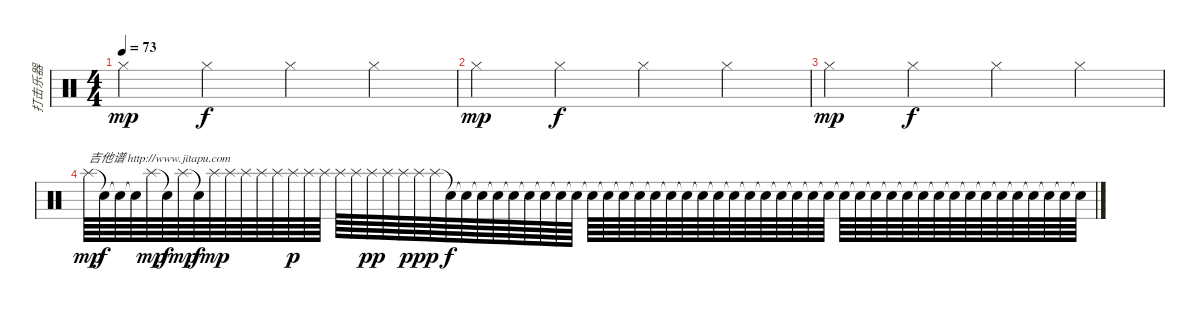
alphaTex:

\track ("打击乐器" "打击乐器") {instrument percussion}
\staff {score}
\articulation defaults
\ts (4 4)
\tempo 73
\clef neutral
\ks c "Hi-Hat (closed)".4{dy mp} "Hi-Hat (closed)".4{dy f} "Hi-Hat (closed)".4 "Hi-Hat (closed)".4
|
"Hi-Hat (closed)".4{dy mp} "Hi-Hat (closed)".4{dy f} "Hi-Hat (closed)".4 "Hi-Hat (closed)".4 |
"Hi-Hat (closed)".4{dy mp} "Hi-Hat (closed)".4{dy f} "Hi-Hat (closed)".4 "Hi-Hat (closed)".4 |
"Splash (hit)".64{txt "吉他谱 http://www.jitapu.com" dy mp} "Snare (hit)"{t}.64{dy f} "Snare (hit)"{t}.64 "Snare (hit)"{t}.64 "Splash (hit)".64{dy mp} "Snare (hit)"{t}.64{dy f} "Splash (hit)".64{dy mp} "Snare (hit)"{t}.64{dy f} "Splash (hit)".64{dy mp} "Splash (hit)".64 "Splash (hit)".64 "Splash (hit)".64 "Splash (hit)".64 "Splash (hit)".64{dy p} "Splash (hit)".64 "Splash (hit)".64 "Splash (hit)".64 "Splash (hit)".64 "Splash (hit)".64{dy pp} "Splash (hit)".64 "Splash (hit)".64 "Splash (hit)".64{dy ppp} "Splash (hit)".64 "Snare (hit)"{t}.64{dy f} "Snare (hit)"{t}.64 "Snare (hit)"{t}.64 "Snare (hit)"{t}.64 "Snare (hit)"{t}.64 "Snare (hit)"{t}.64 "Snare (hit)"{t}.64 "Snare (hit)"{t}.64 "Snare (hit)"{t}.64 "Snare (hit)"{t}.64 "Snare (hit)"{t}.64 "Snare (hit)"{t}.64 "Snare (hit)"{t}.64 "Snare (hit)"{t}.64 "Snare (hit)"{t}.64 "Snare (hit)"{t}.64 "Snare (hit)"{t}.64 "Snare (hit)"{t}.64 "Snare (hit)"{t}.64 "Snare (hit)"{t}.64 "Snare (hit)"{t}.64 "Snare (hit)"{t}.64 "Snare (hit)"{t}.64 "Snare (hit)"{t}.64 "Snare (hit)"{t}.64 "Snare (hit)"{t}.64 "Snare (hit)"{t}.64 "Snare (hit)"{t}.64 "Snare (hit)"{t}.64 "Snare (hit)"{t}.64 "Snare (hit)"{t}.64 "Snare (hit)"{t}.64 "Snare (hit)"{t}.64 "Snare (hit)"{t}.64 "Snare (hit)"{t}.64 "Snare (hit)"{t}.64 "Snare (hit)"{t}.64 "Snare (hit)"{t}.64 "Snare (hit)"{t}.64 "Snare (hit)"{t}.64 "Snare (hit)"{t}.64
